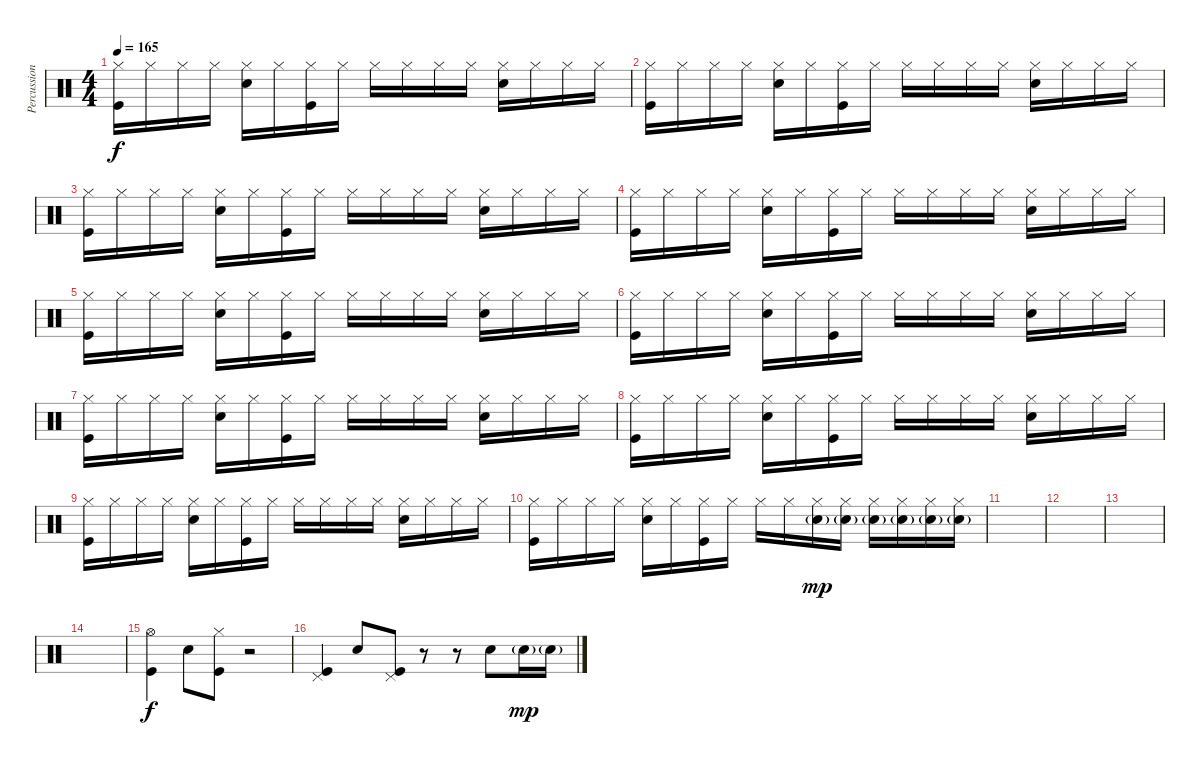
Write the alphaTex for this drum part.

\track ("Percussion" "Percussion") {instrument percussion}
\staff {score}
\articulation defaults
\ts (4 4)
\tempo 165
\clef neutral
\ks c
("Hi-Hat (closed)" "Kick (hit)").16{dy f} "Hi-Hat (closed)".16 "Hi-Hat (closed)".16 "Hi-Hat (closed)".16 ("Hi-Hat (closed)" "Snare (hit) 2").16 "Hi-Hat (closed)".16 ("Hi-Hat (closed)" "Kick (hit)").16 "Hi-Hat (closed)".16 "Hi-Hat (closed)".16 "Hi-Hat (closed)".16 "Hi-Hat (closed)".16 "Hi-Hat (closed)".16 ("Hi-Hat (closed)" "Snare (hit) 2").16 "Hi-Hat (closed)".16 "Hi-Hat (closed)".16 "Hi-Hat (closed)".16 |
("Hi-Hat (closed)" "Kick (hit)").16 "Hi-Hat (closed)".16 "Hi-Hat (closed)".16 "Hi-Hat (closed)".16 ("Hi-Hat (closed)" "Snare (hit) 2").16 "Hi-Hat (closed)".16 ("Hi-Hat (closed)" "Kick (hit)").16 "Hi-Hat (closed)".16 "Hi-Hat (closed)".16 "Hi-Hat (closed)".16 "Hi-Hat (closed)".16 "Hi-Hat (closed)".16 ("Hi-Hat (closed)" "Snare (hit) 2").16 "Hi-Hat (closed)".16 "Hi-Hat (closed)".16 "Hi-Hat (closed)".16 |
("Hi-Hat (closed)" "Kick (hit)").16 "Hi-Hat (closed)".16 "Hi-Hat (closed)".16 "Hi-Hat (closed)".16 ("Hi-Hat (closed)" "Snare (hit) 2").16 "Hi-Hat (closed)".16 ("Hi-Hat (closed)" "Kick (hit)").16 "Hi-Hat (closed)".16 "Hi-Hat (closed)".16 "Hi-Hat (closed)".16 "Hi-Hat (closed)".16 "Hi-Hat (closed)".16 ("Hi-Hat (closed)" "Snare (hit) 2").16 "Hi-Hat (closed)".16 "Hi-Hat (closed)".16 "Hi-Hat (closed)".16 |
("Hi-Hat (closed)" "Kick (hit)").16 "Hi-Hat (closed)".16 "Hi-Hat (closed)".16 "Hi-Hat (closed)".16 ("Hi-Hat (closed)" "Snare (hit) 2").16 "Hi-Hat (closed)".16 ("Hi-Hat (closed)" "Kick (hit)").16 "Hi-Hat (closed)".16 "Hi-Hat (closed)".16 "Hi-Hat (closed)".16 "Hi-Hat (closed)".16 "Hi-Hat (closed)".16 ("Hi-Hat (closed)" "Snare (hit) 2").16 "Hi-Hat (closed)".16 "Hi-Hat (closed)".16 "Hi-Hat (closed)".16 |
("Hi-Hat (closed)" "Kick (hit)").16 "Hi-Hat (closed)".16 "Hi-Hat (closed)".16 "Hi-Hat (closed)".16 ("Hi-Hat (closed)" "Snare (hit) 2").16 "Hi-Hat (closed)".16 ("Hi-Hat (closed)" "Kick (hit)").16 "Hi-Hat (closed)".16 "Hi-Hat (closed)".16 "Hi-Hat (closed)".16 "Hi-Hat (closed)".16 "Hi-Hat (closed)".16 ("Hi-Hat (closed)" "Snare (hit) 2").16 "Hi-Hat (closed)".16 "Hi-Hat (closed)".16 "Hi-Hat (closed)".16 |
("Hi-Hat (closed)" "Kick (hit)").16 "Hi-Hat (closed)".16 "Hi-Hat (closed)".16 "Hi-Hat (closed)".16 ("Hi-Hat (closed)" "Snare (hit) 2").16 "Hi-Hat (closed)".16 ("Hi-Hat (closed)" "Kick (hit)").16 "Hi-Hat (closed)".16 "Hi-Hat (closed)".16 "Hi-Hat (closed)".16 "Hi-Hat (closed)".16 "Hi-Hat (closed)".16 ("Hi-Hat (closed)" "Snare (hit) 2").16 "Hi-Hat (closed)".16 "Hi-Hat (closed)".16 "Hi-Hat (closed)".16 |
("Hi-Hat (closed)" "Kick (hit)").16 "Hi-Hat (closed)".16 "Hi-Hat (closed)".16 "Hi-Hat (closed)".16 ("Hi-Hat (closed)" "Snare (hit) 2").16 "Hi-Hat (closed)".16 ("Hi-Hat (closed)" "Kick (hit)").16 "Hi-Hat (closed)".16 "Hi-Hat (closed)".16 "Hi-Hat (closed)".16 "Hi-Hat (closed)".16 "Hi-Hat (closed)".16 ("Hi-Hat (closed)" "Snare (hit) 2").16 "Hi-Hat (closed)".16 "Hi-Hat (closed)".16 "Hi-Hat (closed)".16 |
("Hi-Hat (closed)" "Kick (hit)").16 "Hi-Hat (closed)".16 "Hi-Hat (closed)".16 "Hi-Hat (closed)".16 ("Hi-Hat (closed)" "Snare (hit) 2").16 "Hi-Hat (closed)".16 ("Hi-Hat (closed)" "Kick (hit)").16 "Hi-Hat (closed)".16 "Hi-Hat (closed)".16 "Hi-Hat (closed)".16 "Hi-Hat (closed)".16 "Hi-Hat (closed)".16 ("Hi-Hat (closed)" "Snare (hit) 2").16 "Hi-Hat (closed)".16 "Hi-Hat (closed)".16 "Hi-Hat (closed)".16 |
("Hi-Hat (closed)" "Kick (hit)").16 "Hi-Hat (closed)".16 "Hi-Hat (closed)".16 "Hi-Hat (closed)".16 ("Hi-Hat (closed)" "Snare (hit) 2").16 "Hi-Hat (closed)".16 ("Hi-Hat (closed)" "Kick (hit)").16 "Hi-Hat (closed)".16 "Hi-Hat (closed)".16 "Hi-Hat (closed)".16 "Hi-Hat (closed)".16 "Hi-Hat (closed)".16 ("Hi-Hat (closed)" "Snare (hit) 2").16 "Hi-Hat (closed)".16 "Hi-Hat (closed)".16 "Hi-Hat (closed)".16 |
("Hi-Hat (closed)" "Kick (hit)").16 "Hi-Hat (closed)".16 "Hi-Hat (closed)".16 "Hi-Hat (closed)".16 ("Hi-Hat (closed)" "Snare (hit) 2").16 "Hi-Hat (closed)".16 ("Hi-Hat (closed)" "Kick (hit)").16 "Hi-Hat (closed)".16 "Hi-Hat (closed)".16 "Hi-Hat (closed)".16 ("Hi-Hat (closed)" "Snare (hit) 2"{g}).16{dy mp} ("Hi-Hat (closed)" "Snare (hit) 2"{g}).16 ("Hi-Hat (closed)" "Snare (hit) 2"{g}).16 ("Hi-Hat (closed)" "Snare (hit) 2"{g}).16 ("Hi-Hat (closed)" "Snare (hit) 2"{g}).16 ("Hi-Hat (closed)" "Snare (hit) 2"{g}).16 |
|
|
|
|
("Hi-Hat (open)" "Kick (hit)").4{dy f} "Snare (hit) 2".8 ("Hi-Hat (closed)" "Kick (hit)").8 r.2 |
("Pedal Hi-Hat (hit)" "Kick (hit)").4 "Snare (hit) 2".8 ("Pedal Hi-Hat (hit)" "Kick (hit)").8 r.8 r.8 "Snare (hit) 2".8 "Snare (hit) 2"{g}.16{dy mp} "Snare (hit) 2"{g}.16
